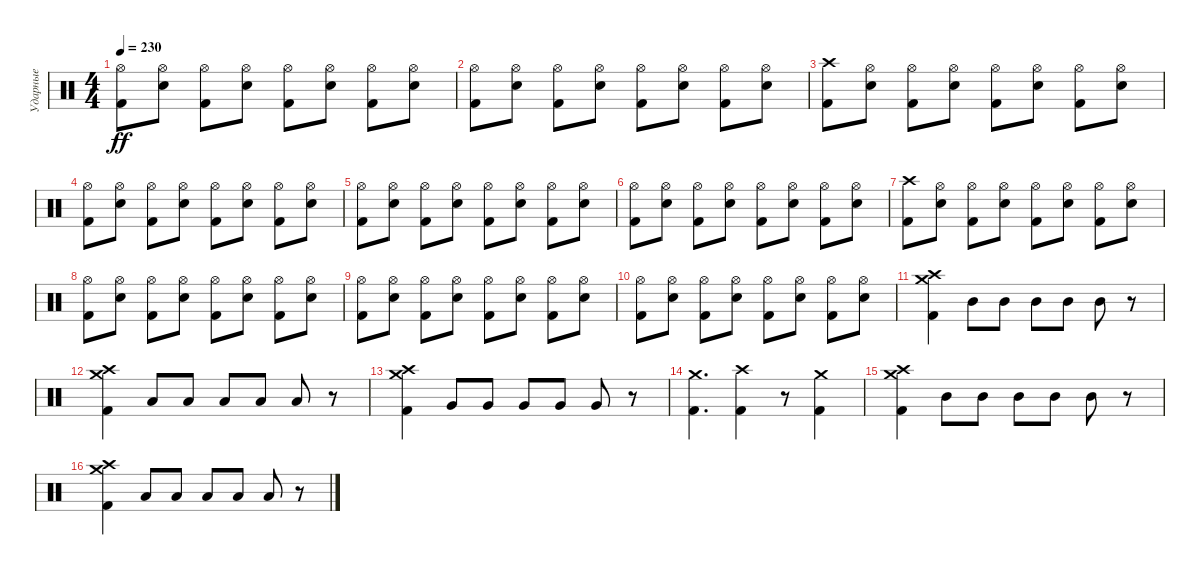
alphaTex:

\track ("Ударные" "Ударные") {instrument percussion}
\staff {score}
\articulation defaults
\ts (4 4)
\tempo 230
\clef neutral
\ks c
("Hi-Hat (open)" "Kick (hit) 2").8{dy ff} ("Hi-Hat (open)" "Snare (hit) 2").8 ("Hi-Hat (open)" "Kick (hit) 2").8 ("Hi-Hat (open)" "Snare (hit) 2").8 ("Hi-Hat (open)" "Kick (hit) 2").8 ("Hi-Hat (open)" "Snare (hit) 2").8 ("Hi-Hat (open)" "Kick (hit) 2").8 ("Hi-Hat (open)" "Snare (hit) 2").8 |
("Hi-Hat (open)" "Kick (hit) 2").8 ("Hi-Hat (open)" "Snare (hit) 2").8 ("Hi-Hat (open)" "Kick (hit) 2").8 ("Hi-Hat (open)" "Snare (hit) 2").8 ("Hi-Hat (open)" "Kick (hit) 2").8 ("Hi-Hat (open)" "Snare (hit) 2").8 ("Hi-Hat (open)" "Kick (hit) 2").8 ("Hi-Hat (open)" "Snare (hit) 2").8 |
("Crash high (hit)" "Kick (hit) 2").8 ("Hi-Hat (open)" "Snare (hit) 2").8 ("Hi-Hat (open)" "Kick (hit) 2").8 ("Hi-Hat (open)" "Snare (hit) 2").8 ("Hi-Hat (open)" "Kick (hit) 2").8 ("Hi-Hat (open)" "Snare (hit) 2").8 ("Hi-Hat (open)" "Kick (hit) 2").8 ("Hi-Hat (open)" "Snare (hit) 2").8 |
("Hi-Hat (open)" "Kick (hit) 2").8 ("Hi-Hat (open)" "Snare (hit) 2").8 ("Hi-Hat (open)" "Kick (hit) 2").8 ("Hi-Hat (open)" "Snare (hit) 2").8 ("Hi-Hat (open)" "Kick (hit) 2").8 ("Hi-Hat (open)" "Snare (hit) 2").8 ("Hi-Hat (open)" "Kick (hit) 2").8 ("Hi-Hat (open)" "Snare (hit) 2").8 |
("Hi-Hat (open)" "Kick (hit) 2").8 ("Hi-Hat (open)" "Snare (hit) 2").8 ("Hi-Hat (open)" "Kick (hit) 2").8 ("Hi-Hat (open)" "Snare (hit) 2").8 ("Hi-Hat (open)" "Kick (hit) 2").8 ("Hi-Hat (open)" "Snare (hit) 2").8 ("Hi-Hat (open)" "Kick (hit) 2").8 ("Hi-Hat (open)" "Snare (hit) 2").8 |
("Hi-Hat (open)" "Kick (hit) 2").8 ("Hi-Hat (open)" "Snare (hit) 2").8 ("Hi-Hat (open)" "Kick (hit) 2").8 ("Hi-Hat (open)" "Snare (hit) 2").8 ("Hi-Hat (open)" "Kick (hit) 2").8 ("Hi-Hat (open)" "Snare (hit) 2").8 ("Hi-Hat (open)" "Kick (hit) 2").8 ("Hi-Hat (open)" "Snare (hit) 2").8 |
("Crash high (hit)" "Kick (hit) 2").8 ("Hi-Hat (open)" "Snare (hit) 2").8 ("Hi-Hat (open)" "Kick (hit) 2").8 ("Hi-Hat (open)" "Snare (hit) 2").8 ("Hi-Hat (open)" "Kick (hit) 2").8 ("Hi-Hat (open)" "Snare (hit) 2").8 ("Hi-Hat (open)" "Kick (hit) 2").8 ("Hi-Hat (open)" "Snare (hit) 2").8 |
("Hi-Hat (open)" "Kick (hit) 2").8 ("Hi-Hat (open)" "Snare (hit) 2").8 ("Hi-Hat (open)" "Kick (hit) 2").8 ("Hi-Hat (open)" "Snare (hit) 2").8 ("Hi-Hat (open)" "Kick (hit) 2").8 ("Hi-Hat (open)" "Snare (hit) 2").8 ("Hi-Hat (open)" "Kick (hit) 2").8 ("Hi-Hat (open)" "Snare (hit) 2").8 |
("Hi-Hat (open)" "Kick (hit) 2").8 ("Hi-Hat (open)" "Snare (hit) 2").8 ("Hi-Hat (open)" "Kick (hit) 2").8 ("Hi-Hat (open)" "Snare (hit) 2").8 ("Hi-Hat (open)" "Kick (hit) 2").8 ("Hi-Hat (open)" "Snare (hit) 2").8 ("Hi-Hat (open)" "Kick (hit) 2").8 ("Hi-Hat (open)" "Snare (hit) 2").8 |
("Hi-Hat (open)" "Kick (hit) 2").8 ("Hi-Hat (open)" "Snare (hit) 2").8 ("Hi-Hat (open)" "Kick (hit) 2").8 ("Hi-Hat (open)" "Snare (hit) 2").8 ("Hi-Hat (open)" "Kick (hit) 2").8 ("Hi-Hat (open)" "Snare (hit) 2").8 ("Hi-Hat (open)" "Kick (hit) 2").8 ("Hi-Hat (open)" "Snare (hit) 2").8 |
("Crash high (hit)" "Crash medium (hit)" "Kick (hit) 2").4 "Mid Tom (hit)".8 "Mid Tom (hit)".8 "Mid Tom (hit)".8 "Mid Tom (hit)".8 "Mid Tom (hit)".8 r.8 |
("Crash high (hit)" "Crash medium (hit)" "Kick (hit) 2").4 "Low Tom (hit)".8 "Low Tom (hit)".8 "Low Tom (hit)".8 "Low Tom (hit)".8 "Low Tom (hit)".8 r.8 |
("Crash high (hit)" "Crash medium (hit)" "Kick (hit) 2").4 "Very Low Tom (hit)".8 "Very Low Tom (hit)".8 "Very Low Tom (hit)".8 "Very Low Tom (hit)".8 "Very Low Tom (hit)".8 r.8 |
("Crash medium (hit)" "Kick (hit) 2").4{d} ("Crash high (hit)" "Kick (hit) 2").4 r.8 ("Crash medium (hit)" "Kick (hit) 2").4 |
("Crash high (hit)" "Crash medium (hit)" "Kick (hit) 2").4 "Mid Tom (hit)".8 "Mid Tom (hit)".8 "Mid Tom (hit)".8 "Mid Tom (hit)".8 "Mid Tom (hit)".8 r.8 |
("Crash high (hit)" "Crash medium (hit)" "Kick (hit) 2").4 "Low Tom (hit)".8 "Low Tom (hit)".8 "Low Tom (hit)".8 "Low Tom (hit)".8 "Low Tom (hit)".8 r.8
